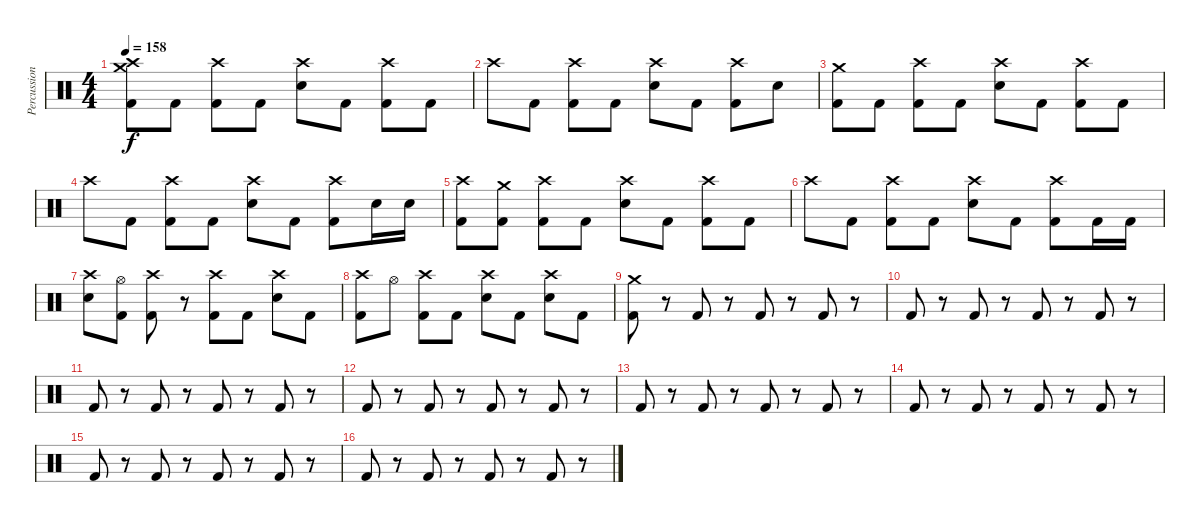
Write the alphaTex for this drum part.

\track ("Percussion" "Percussion") {instrument percussion}
\staff {score}
\articulation defaults
\ts (4 4)
\tempo 158
\clef neutral
\ks c
("Crash medium (hit)" "Crash high (hit)" "Kick (hit) 2").8{dy f} "Kick (hit) 2".8 ("Crash high (hit)" "Kick (hit) 2").8 "Kick (hit) 2".8 ("Crash high (hit)" "Snare (hit) 2").8 "Kick (hit) 2".8 ("Crash high (hit)" "Kick (hit) 2").8 "Kick (hit) 2".8 |
"Crash high (hit)".8 "Kick (hit) 2".8 ("Crash high (hit)" "Kick (hit) 2").8 "Kick (hit) 2".8 ("Crash high (hit)" "Snare (hit) 2").8 "Kick (hit) 2".8 ("Crash high (hit)" "Kick (hit) 2").8 "Snare (hit) 2".8 |
("Crash medium (hit)" "Kick (hit) 2").8 "Kick (hit) 2".8 ("Crash high (hit)" "Kick (hit) 2").8 "Kick (hit) 2".8 ("Crash high (hit)" "Snare (hit) 2").8 "Kick (hit) 2".8 ("Crash high (hit)" "Kick (hit) 2").8 "Kick (hit) 2".8 |
"Crash high (hit)".8 "Kick (hit) 2".8 ("Crash high (hit)" "Kick (hit) 2").8 "Kick (hit) 2".8 ("Crash high (hit)" "Snare (hit) 2").8 "Kick (hit) 2".8 ("Crash high (hit)" "Kick (hit) 2").8 "Snare (hit) 2".16 "Snare (hit) 2".16 |
("Crash high (hit)" "Kick (hit) 2").8 ("Crash medium (hit)" "Kick (hit) 2").8 ("Crash high (hit)" "Kick (hit) 2").8 "Kick (hit) 2".8 ("Crash high (hit)" "Snare (hit) 2").8 "Kick (hit) 2".8 ("Crash high (hit)" "Kick (hit) 2").8 "Kick (hit) 2".8 |
"Crash high (hit)".8 "Kick (hit) 2".8 ("Crash high (hit)" "Kick (hit) 2").8 "Kick (hit) 2".8 ("Crash high (hit)" "Snare (hit) 2").8 "Kick (hit) 2".8 ("Crash high (hit)" "Kick (hit) 2").8 "Kick (hit) 2".16 "Kick (hit) 2".16 |
("Crash high (hit)" "Snare (hit) 2").8 ("Hi-Hat (open)" "Kick (hit) 2").8 ("Crash high (hit)" "Kick (hit) 2").8 r.8 ("Crash high (hit)" "Kick (hit) 2").8 "Kick (hit) 2".8 ("Crash high (hit)" "Snare (hit) 2").8 "Kick (hit) 2".8 |
("Crash high (hit)" "Kick (hit) 2").8 "Hi-Hat (open)".8 ("Crash high (hit)" "Kick (hit) 2").8 "Kick (hit) 2".8 ("Crash high (hit)" "Snare (hit) 2").8 "Kick (hit) 2".8 ("Crash high (hit)" "Snare (hit) 2").8 "Kick (hit) 2".8 |
("Crash medium (hit)" "Kick (hit) 2").8 r.8 "Kick (hit) 2".8 r.8 "Kick (hit) 2".8 r.8 "Kick (hit) 2".8 r.8 |
"Kick (hit) 2".8 r.8 "Kick (hit) 2".8 r.8 "Kick (hit) 2".8 r.8 "Kick (hit) 2".8 r.8 |
"Kick (hit) 2".8 r.8 "Kick (hit) 2".8 r.8 "Kick (hit) 2".8 r.8 "Kick (hit) 2".8 r.8 |
"Kick (hit) 2".8 r.8 "Kick (hit) 2".8 r.8 "Kick (hit) 2".8 r.8 "Kick (hit) 2".8 r.8 |
"Kick (hit) 2".8 r.8 "Kick (hit) 2".8 r.8 "Kick (hit) 2".8 r.8 "Kick (hit) 2".8 r.8 |
"Kick (hit) 2".8 r.8 "Kick (hit) 2".8 r.8 "Kick (hit) 2".8 r.8 "Kick (hit) 2".8 r.8 |
"Kick (hit) 2".8 r.8 "Kick (hit) 2".8 r.8 "Kick (hit) 2".8 r.8 "Kick (hit) 2".8 r.8 |
"Kick (hit) 2".8 r.8 "Kick (hit) 2".8 r.8 "Kick (hit) 2".8 r.8 "Kick (hit) 2".8 r.8
